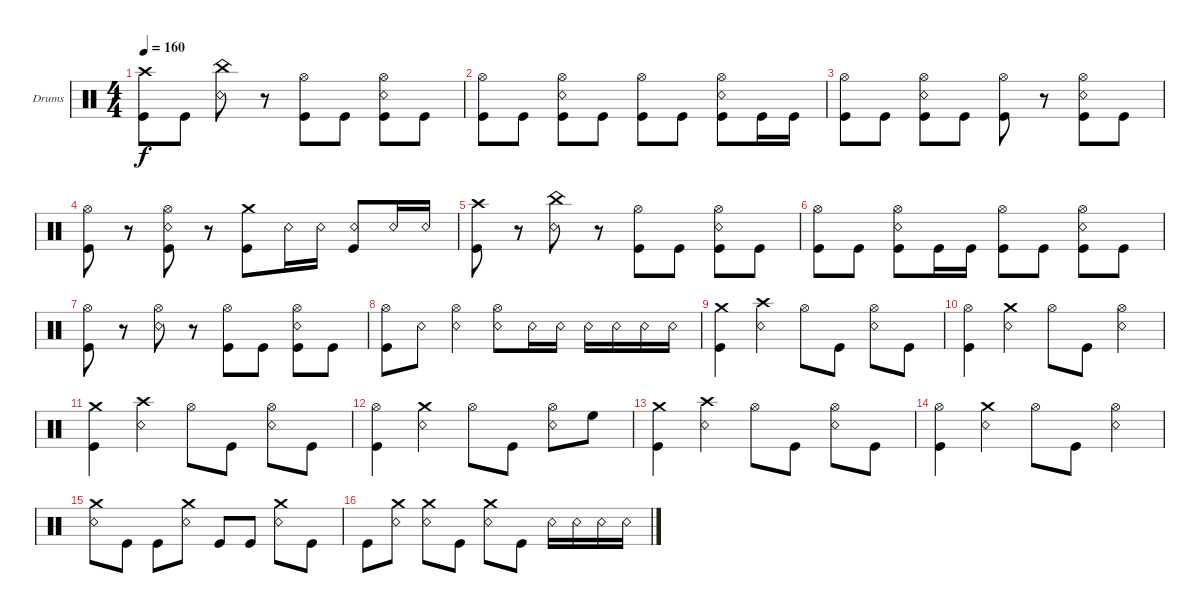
\bracketExtendMode groupsimilarinstruments
\firstSystemTrackNameOrientation horizontal
\otherSystemsTrackNameOrientation horizontal
\track ("Drumkit" "Drums") {instrument percussion}
\staff {score}
\articulation defaults
\ts (4 4)
\tempo 160
\clef neutral
\scale
0.333333
\ks c
("Kick (hit)" "Crash high (hit)").8{dy f} "Kick (hit)".8 ("Snare (rim shot)" "China (hit)").8 r.8 ("Kick (hit)" "Hi-Hat (open)").8 "Kick (hit)".8 ("Kick (hit)" "Snare (rim shot)" "Hi-Hat (open)").8 "Kick (hit)".8 |
\scale
0.333333 ("Kick (hit)" "Hi-Hat (open)").8 "Kick (hit)".8 ("Kick (hit)" "Hi-Hat (open)" "Snare (rim shot)").8 "Kick (hit)".8 ("Kick (hit)" "Hi-Hat (open)").8 "Kick (hit)".8 ("Kick (hit)" "Snare (rim shot)" "Hi-Hat (open)").8 "Kick (hit)".16 "Kick (hit)".16 |
\scale
0.333333 ("Kick (hit)" "Hi-Hat (open)").8 "Kick (hit)".8 ("Kick (hit)" "Snare (rim shot)" "Hi-Hat (open)").8 "Kick (hit)".8 ("Kick (hit)" "Hi-Hat (open)").8 r.8 ("Snare (rim shot)" "Kick (hit)" "Hi-Hat (open)").8 "Kick (hit)".8 |
\scale
0.333333 ("Kick (hit)" "Hi-Hat (open)").8 r.8 ("Kick (hit)" "Snare (rim shot)" "Hi-Hat (open)").8 r.8 ("Kick (hit)" "Crash medium (hit)").8 "Snare (rim shot)".16 "Snare (rim shot)".16 ("Kick (hit)" "Snare (rim shot)").8 "Snare (rim shot)".16 "Snare (rim shot)".16 |
\scale
0.333333 ("Kick (hit)" "Crash high (hit)").8 r.8 ("Snare (rim shot)" "China (hit)").8 r.8 ("Kick (hit)" "Hi-Hat (open)").8 "Kick (hit)".8 ("Kick (hit)" "Snare (rim shot)" "Hi-Hat (open)").8 "Kick (hit)".8 |
\scale
0.333333 ("Kick (hit)" "Hi-Hat (open)").8 "Kick (hit)".8 ("Kick (hit)" "Hi-Hat (open)" "Snare (rim shot)").8 "Kick (hit)".16 "Kick (hit)".16 ("Kick (hit)" "Hi-Hat (open)").8 "Kick (hit)".8 ("Kick (hit)" "Snare (rim shot)" "Hi-Hat (open)").8 "Kick (hit)".8 |
\scale
0.333333 ("Kick (hit)" "Hi-Hat (open)").8 r.8 ("Snare (rim shot)" "Hi-Hat (open)").8 r.8 ("Kick (hit)" "Hi-Hat (open)").8 "Kick (hit)".8 ("Kick (hit)" "Snare (rim shot)" "Hi-Hat (open)").8 "Kick (hit)".8 |
\scale
0.333333 ("Kick (hit)" "Hi-Hat (open)").8 "Snare (rim shot)".8 ("Snare (rim shot)" "Hi-Hat (open)").4 ("Snare (rim shot)" "Hi-Hat (open)").8 "Snare (rim shot)".16 "Snare (rim shot)".16 "Snare (rim shot)".16 "Snare (rim shot)".16 "Snare (rim shot)".16 "Snare (rim shot)".16 |
\scale
0.333333 ("Crash medium (hit)" "Kick (hit)").4 ("Crash high (hit)" "Snare (rim shot)").4 "Hi-Hat (open)".8 "Kick (hit)".8 ("Hi-Hat (open)" "Snare (rim shot)").8 "Kick (hit)".8 |
\scale
0.333333 ("Hi-Hat (open)" "Kick (hit)").4 ("Crash medium (hit)" "Snare (rim shot)").4 "Hi-Hat (open)".8 "Kick (hit)".8 ("Hi-Hat (open)" "Snare (rim shot)").4 |
\scale
0.333333 ("Crash medium (hit)" "Kick (hit)").4 ("Crash high (hit)" "Snare (rim shot)").4 "Hi-Hat (open)".8 "Kick (hit)".8 ("Hi-Hat (open)" "Snare (rim shot)").8 "Kick (hit)".8 |
\scale
0.333333 ("Hi-Hat (open)" "Kick (hit)").4 ("Crash medium (hit)" "Snare (rim shot)").4 "Hi-Hat (open)".8 "Kick (hit)".8 ("Hi-Hat (open)" "Snare (rim shot)").8 "High Floor Tom (hit)".8 |
\scale
0.333333 ("Crash medium (hit)" "Kick (hit)").4 ("Crash high (hit)" "Snare (rim shot)").4 "Hi-Hat (open)".8 "Kick (hit)".8 ("Hi-Hat (open)" "Snare (rim shot)").8 "Kick (hit)".8 |
\scale
0.333333 ("Hi-Hat (open)" "Kick (hit)").4 ("Crash medium (hit)" "Snare (rim shot)").4 "Hi-Hat (open)".8 "Kick (hit)".8 ("Hi-Hat (open)" "Snare (rim shot)").4 |
\scale
0.333333 ("Crash medium (hit)" "Snare (rim shot)").8 "Kick (hit)".8 "Kick (hit)".8 ("Crash medium (hit)" "Snare (rim shot)").8 "Kick (hit)".8 "Kick (hit)".8 ("Crash medium (hit)" "Snare (rim shot)").8 "Kick (hit)".8 |
\scale
0.333333 "Kick (hit)".8 ("Crash medium (hit)" "Snare (rim shot)").8 ("Crash medium (hit)" "Snare (rim shot)").8 "Kick (hit)".8 ("Crash medium (hit)" "Snare (rim shot)").8 "Kick (hit)".8 "Snare (rim shot)".16 "Snare (rim shot)".16 "Snare (rim shot)".16 "Snare (rim shot)".16
